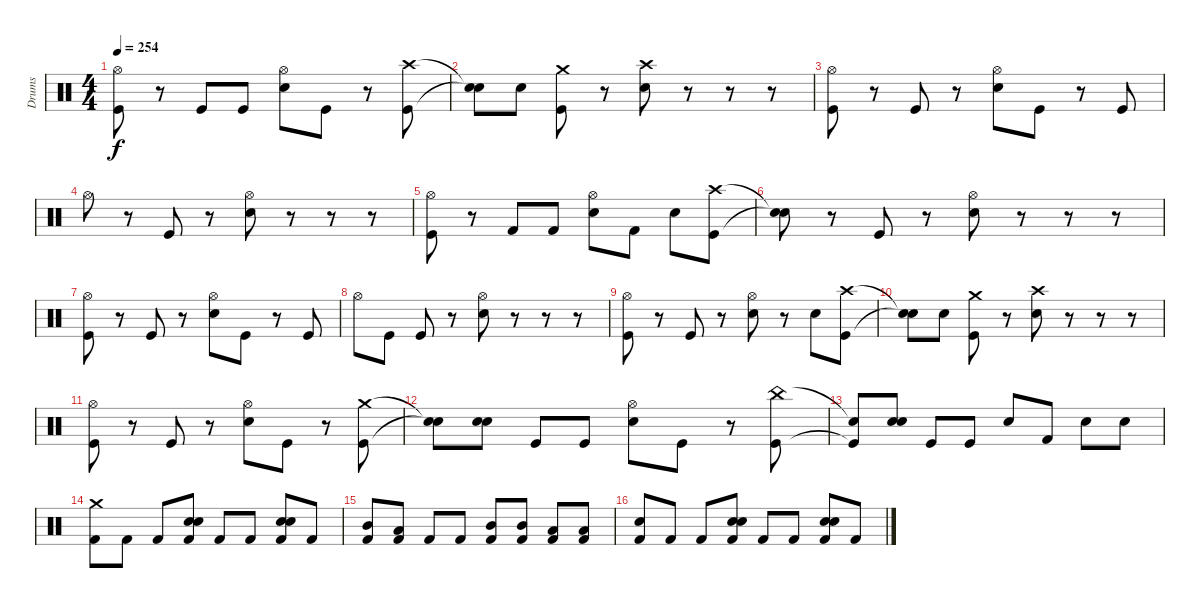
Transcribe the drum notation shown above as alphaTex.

\track ("Drums" "Drums") {instrument percussion}
\staff {score}
\articulation defaults
\ts (4 4)
\tempo 254
\clef neutral
\ks c
("Hi-Hat (open)" "Kick (hit)").8{dy f} r.8 "Kick (hit)".8 "Kick (hit)".8 ("Hi-Hat (open)" "Electric Snare (hit)").8 "Kick (hit)".8 r.8 ("Crash high (hit)" "Kick (hit)").8 |
("Snare (hit)"{t} "Snare (hit)"{t}).8 "Electric Snare (hit)".8 ("Crash medium (hit)" "Kick (hit)").8 r.8 ("Crash high (hit)" "Electric Snare (hit)").8 r.8 r.8 r.8 |
("Hi-Hat (open)" "Kick (hit)").8 r.8 "Kick (hit)".8 r.8 ("Hi-Hat (open)" "Electric Snare (hit)").8 "Kick (hit)".8 r.8 "Kick (hit)".8 |
"Hi-Hat (open)".8 r.8 "Kick (hit)".8 r.8 ("Hi-Hat (open)" "Electric Snare (hit)").8 r.8 r.8 r.8 |
("Hi-Hat (open)" "Kick (hit)").8 r.8 "Kick (hit) 2".8 "Kick (hit) 2".8 ("Hi-Hat (open)" "Electric Snare (hit)").8 "Kick (hit) 2".8 "Electric Snare (hit)".8 ("Crash high (hit)" "Kick (hit)").8 |
("Snare (hit)"{t} "Snare (hit)"{t}).8 r.8 "Kick (hit)".8 r.8 ("Hi-Hat (open)" "Electric Snare (hit)").8 r.8 r.8 r.8 |
("Hi-Hat (open)" "Kick (hit)").8 r.8 "Kick (hit)".8 r.8 ("Hi-Hat (open)" "Electric Snare (hit)").8 "Kick (hit)".8 r.8 "Kick (hit)".8 |
"Hi-Hat (open)".8 "Kick (hit)".8 "Kick (hit)".8 r.8 ("Hi-Hat (open)" "Electric Snare (hit)").8 r.8 r.8 r.8 |
("Hi-Hat (open)" "Kick (hit)").8 r.8 "Kick (hit)".8 r.8 ("Hi-Hat (open)" "Electric Snare (hit)").8 r.8 "Electric Snare (hit)".8 ("Crash high (hit)" "Kick (hit)").8 |
("Snare (hit)"{t} "Snare (hit)"{t}).8 "Electric Snare (hit)".8 ("Crash medium (hit)" "Kick (hit)").8 r.8 ("Crash high (hit)" "Electric Snare (hit)").8 r.8 r.8 r.8 |
("Hi-Hat (open)" "Kick (hit)").8 r.8 "Kick (hit)".8 r.8 ("Hi-Hat (open)" "Electric Snare (hit)").8 "Kick (hit)".8 r.8 ("Crash medium (hit)" "Kick (hit)").8 |
("Snare (hit)"{t} "Snare (hit)"{t}).8 ("Electric Snare (hit)" "Electric Snare (hit)").8{bd 480} "Kick (hit)".8 "Kick (hit)".8 ("Hi-Hat (open)" "Electric Snare (hit)").8 "Kick (hit)".8 r.8 ("China (hit)" "Kick (hit)").8 |
("Snare (hit)"{t} "Kick (hit)"{t}).8 ("Electric Snare (hit)" "Electric Snare (hit)").8{bd 480} "Kick (hit)".8 "Kick (hit)".8 "Electric Snare (hit)".8 "Kick (hit) 2".8 "Electric Snare (hit)".8 "Electric Snare (hit)".8 |
("Crash medium (hit)" "Kick (hit) 2").8 "Kick (hit) 2".8 "Kick (hit) 2".8 ("Electric Snare (hit)" "Electric Snare (hit)" "Kick (hit) 2").8{bu 60} "Kick (hit) 2".8 "Kick (hit) 2".8 ("Electric Snare (hit)" "Electric Snare (hit)" "Kick (hit) 2").8{bu 60} "Kick (hit) 2".8 |
("Mid Tom (hit)" "Kick (hit) 2").8 ("Low Tom (hit)" "Kick (hit) 2").8 "Kick (hit) 2".8 "Kick (hit) 2".8 ("Mid Tom (hit)" "Kick (hit) 2").8 ("Mid Tom (hit)" "Kick (hit) 2").8 ("Low Tom (hit)" "Kick (hit) 2").8 ("Low Tom (hit)" "Kick (hit) 2").8 |
("Electric Snare (hit)" "Kick (hit) 2").8 "Kick (hit) 2".8 "Kick (hit) 2".8 ("Electric Snare (hit)" "Electric Snare (hit)" "Kick (hit) 2").8{bu 60} "Kick (hit) 2".8 "Kick (hit) 2".8 ("Electric Snare (hit)" "Electric Snare (hit)" "Kick (hit) 2").8{bu 60} "Kick (hit) 2".8
